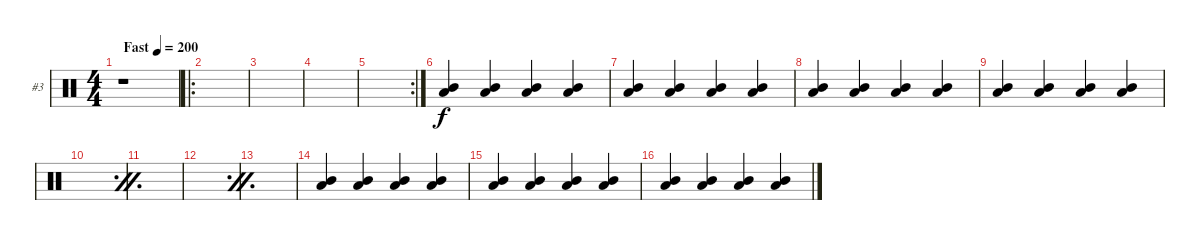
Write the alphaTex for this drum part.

\bracketExtendMode groupsimilarinstruments
\firstSystemTrackNameOrientation horizontal
\otherSystemsTrackNameOrientation horizontal
\track ("Chris Fehn" "#3") {instrument percussion}
\staff {score}
\articulation defaults
\ts (4 4)
\beaming (8 2 2 2 2)
\tempo (200 "Fast")
\clef neutral
\ks c
r.1{dy f} |
\ro
|
|
|
\rc 2
|
("Low Tom (hit)" "Mid Tom (hit)").4 ("Low Tom (hit)" "Mid Tom (hit)").4 ("Low Tom (hit)" "Mid Tom (hit)").4 ("Low Tom (hit)" "Mid Tom (hit)").4 |
("Low Tom (hit)" "Mid Tom (hit)").4 ("Low Tom (hit)" "Mid Tom (hit)").4 ("Low Tom (hit)" "Mid Tom (hit)").4 ("Low Tom (hit)" "Mid Tom (hit)").4 |
("Low Tom (hit)" "Mid Tom (hit)").4 ("Low Tom (hit)" "Mid Tom (hit)").4 ("Low Tom (hit)" "Mid Tom (hit)").4 ("Low Tom (hit)" "Mid Tom (hit)").4 |
("Low Tom (hit)" "Mid Tom (hit)").4 ("Low Tom (hit)" "Mid Tom (hit)").4 ("Low Tom (hit)" "Mid Tom (hit)").4 ("Low Tom (hit)" "Mid Tom (hit)").4 |
\simile firstofdouble
|
\simile secondofdouble
|
\simile firstofdouble
|
\simile secondofdouble
|
\simile none
("Low Tom (hit)" "Mid Tom (hit)").4 ("Low Tom (hit)" "Mid Tom (hit)").4 ("Low Tom (hit)" "Mid Tom (hit)").4 ("Low Tom (hit)" "Mid Tom (hit)").4 |
("Low Tom (hit)" "Mid Tom (hit)").4 ("Low Tom (hit)" "Mid Tom (hit)").4 ("Low Tom (hit)" "Mid Tom (hit)").4 ("Low Tom (hit)" "Mid Tom (hit)").4 |
("Low Tom (hit)" "Mid Tom (hit)").4 ("Low Tom (hit)" "Mid Tom (hit)").4 ("Low Tom (hit)" "Mid Tom (hit)").4 ("Low Tom (hit)" "Mid Tom (hit)").4
